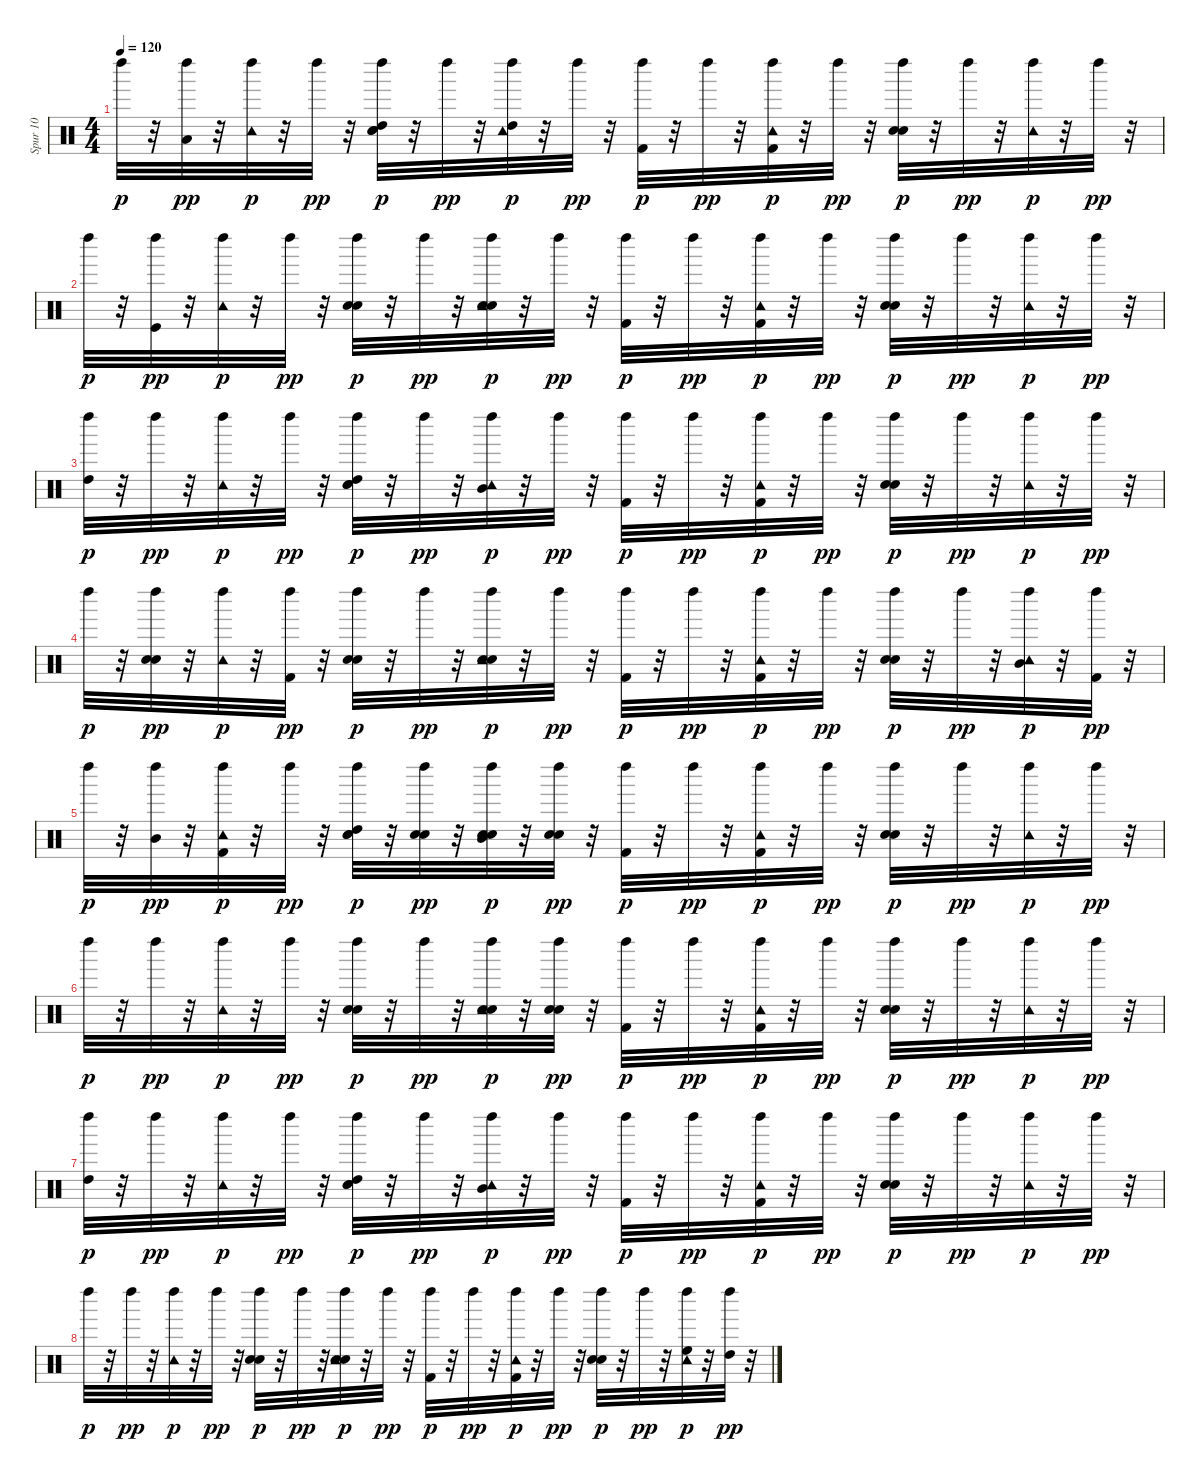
\track ("Spur 10" "Spur 10") {instrument percussion}
\staff {score}
\articulation defaults
\ts (4 4)
\tempo 120
\clef neutral
\ks c "Left Maraca (hit)".32{dy p}
r.32 ("Low Tom (hit)" "Left Maraca (hit)").32{dy pp} r.32 ("Tambourine (hit)" "Left Maraca (hit)").32{dy p} r.32 "Left Maraca (hit)".32{dy pp} r.32 ("Hand Clap (hit)" "Electric Snare (hit)" "High Tom (hit)" "Left Maraca (hit)").32{dy p} r.32 "Left Maraca (hit)".32{dy pp} r.32 ("High Tom (hit)" "Tambourine (hit)" "Left Maraca (hit)").32{dy p} r.32 "Left Maraca (hit)".32{dy pp} r.32 ("Kick (hit) 2" "Left Maraca (hit)").32{dy p} r.32 "Left Maraca (hit)".32{dy pp} r.32 ("Kick (hit) 2" "Tambourine (hit)" "Left Maraca (hit)").32{dy p} r.32 "Left Maraca (hit)".32{dy pp} r.32 ("Hand Clap (hit)" "Electric Snare (hit)" "Left Maraca (hit)").32{dy p} r.32 "Left Maraca (hit)".32{dy pp} r.32 ("Tambourine (hit)" "Left Maraca (hit)").32{dy p} r.32 "Left Maraca (hit)".32{dy pp} r.32 |
"Left Maraca (hit)".32{dy p} r.32 ("Kick (hit)" "Left Maraca (hit)").32{dy pp} r.32 ("Tambourine (hit)" "Left Maraca (hit)").32{dy p} r.32 "Left Maraca (hit)".32{dy pp} r.32 ("Hand Clap (hit)" "Electric Snare (hit)" "Left Maraca (hit)").32{dy p} r.32 "Left Maraca (hit)".32{dy pp} r.32 ("Hand Clap (hit)" "Electric Snare (hit)" "Tambourine (hit)" "Left Maraca (hit)").32{dy p} r.32 "Left Maraca (hit)".32{dy pp} r.32 ("Kick (hit) 2" "Left Maraca (hit)").32{dy p} r.32 "Left Maraca (hit)".32{dy pp} r.32 ("Kick (hit) 2" "Tambourine (hit)" "Left Maraca (hit)").32{dy p} r.32 "Left Maraca (hit)".32{dy pp} r.32 ("Hand Clap (hit)" "Electric Snare (hit)" "Left Maraca (hit)").32{dy p} r.32 "Left Maraca (hit)".32{dy pp} r.32 ("Tambourine (hit)" "Left Maraca (hit)").32{dy p} r.32 "Left Maraca (hit)".32{dy pp} r.32 |
("High Tom (hit)" "Left Maraca (hit)").32{dy p} r.32 "Left Maraca (hit)".32{dy pp} r.32 ("Tambourine (hit)" "Left Maraca (hit)").32{dy p} r.32 "Left Maraca (hit)".32{dy pp} r.32 ("Hand Clap (hit)" "Electric Snare (hit)" "High Tom (hit)" "Left Maraca (hit)").32{dy p} r.32 "Left Maraca (hit)".32{dy pp} r.32 ("Mid Tom (hit)" "Tambourine (hit)" "Left Maraca (hit)").32{dy p} r.32 "Left Maraca (hit)".32{dy pp} r.32 ("Kick (hit) 2" "Left Maraca (hit)").32{dy p} r.32 "Left Maraca (hit)".32{dy pp} r.32 ("Kick (hit) 2" "Tambourine (hit)" "Left Maraca (hit)").32{dy p} r.32 "Left Maraca (hit)".32{dy pp} r.32 ("Hand Clap (hit)" "Electric Snare (hit)" "Left Maraca (hit)").32{dy p} r.32 "Left Maraca (hit)".32{dy pp} r.32 ("Tambourine (hit)" "Left Maraca (hit)").32{dy p} r.32 "Left Maraca (hit)".32{dy pp} r.32 |
"Left Maraca (hit)".32{dy p} r.32 ("Hand Clap (hit)" "Electric Snare (hit)" "Left Maraca (hit)").32{dy pp} r.32 ("Tambourine (hit)" "Left Maraca (hit)").32{dy p} r.32 ("Kick (hit) 2" "Left Maraca (hit)").32{dy pp} r.32 ("Hand Clap (hit)" "Electric Snare (hit)" "Left Maraca (hit)").32{dy p} r.32 "Left Maraca (hit)".32{dy pp} r.32 ("Hand Clap (hit)" "Electric Snare (hit)" "Tambourine (hit)" "Left Maraca (hit)").32{dy p} r.32 "Left Maraca (hit)".32{dy pp} r.32 ("Kick (hit) 2" "Left Maraca (hit)").32{dy p} r.32 "Left Maraca (hit)".32{dy pp} r.32 ("Kick (hit) 2" "Tambourine (hit)" "Left Maraca (hit)").32{dy p} r.32 "Left Maraca (hit)".32{dy pp} r.32 ("Hand Clap (hit)" "Electric Snare (hit)" "Left Maraca (hit)").32{dy p} r.32 "Left Maraca (hit)".32{dy pp} r.32 ("Mid Tom (hit)" "Tambourine (hit)" "Left Maraca (hit)").32{dy p} r.32 ("Kick (hit) 2" "Left Maraca (hit)").32{dy pp} r.32 |
"Left Maraca (hit)".32{dy p} r.32 ("Mid Tom (hit)" "Left Maraca (hit)").32{dy pp} r.32 ("Kick (hit) 2" "Tambourine (hit)" "Left Maraca (hit)").32{dy p} r.32 "Left Maraca (hit)".32{dy pp} r.32 ("Hand Clap (hit)" "Electric Snare (hit)" "High Tom (hit)" "Left Maraca (hit)").32{dy p} r.32 ("Hand Clap (hit)" "Electric Snare (hit)" "Left Maraca (hit)").32{dy pp} r.32 ("Hand Clap (hit)" "Electric Snare (hit)" "Mid Tom (hit)" "Tambourine (hit)" "Left Maraca (hit)").32{dy p} r.32 ("Hand Clap (hit)" "Electric Snare (hit)" "Left Maraca (hit)").32{dy pp} r.32 ("Kick (hit) 2" "Left Maraca (hit)").32{dy p} r.32 "Left Maraca (hit)".32{dy pp} r.32 ("Kick (hit) 2" "Tambourine (hit)" "Left Maraca (hit)").32{dy p} r.32 "Left Maraca (hit)".32{dy pp} r.32 ("Hand Clap (hit)" "Electric Snare (hit)" "Left Maraca (hit)").32{dy p} r.32 "Left Maraca (hit)".32{dy pp} r.32 ("Tambourine (hit)" "Left Maraca (hit)").32{dy p} r.32 "Left Maraca (hit)".32{dy pp} r.32 |
"Left Maraca (hit)".32{dy p} r.32 "Left Maraca (hit)".32{dy pp} r.32 ("Tambourine (hit)" "Left Maraca (hit)").32{dy p} r.32 "Left Maraca (hit)".32{dy pp} r.32 ("Hand Clap (hit)" "Electric Snare (hit)" "Left Maraca (hit)").32{dy p} r.32 "Left Maraca (hit)".32{dy pp} r.32 ("Hand Clap (hit)" "Electric Snare (hit)" "Tambourine (hit)" "Left Maraca (hit)").32{dy p} r.32 ("Hand Clap (hit)" "Electric Snare (hit)" "Left Maraca (hit)").32{dy pp} r.32 ("Kick (hit) 2" "Left Maraca (hit)").32{dy p} r.32 "Left Maraca (hit)".32{dy pp} r.32 ("Kick (hit) 2" "Tambourine (hit)" "Left Maraca (hit)").32{dy p} r.32 "Left Maraca (hit)".32{dy pp} r.32 ("Hand Clap (hit)" "Electric Snare (hit)" "Left Maraca (hit)").32{dy p} r.32 "Left Maraca (hit)".32{dy pp} r.32 ("Tambourine (hit)" "Left Maraca (hit)").32{dy p} r.32 "Left Maraca (hit)".32{dy pp} r.32 |
("High Tom (hit)" "Left Maraca (hit)").32{dy p} r.32 "Left Maraca (hit)".32{dy pp} r.32 ("Tambourine (hit)" "Left Maraca (hit)").32{dy p} r.32 "Left Maraca (hit)".32{dy pp} r.32 ("Hand Clap (hit)" "Electric Snare (hit)" "High Tom (hit)" "Left Maraca (hit)").32{dy p} r.32 "Left Maraca (hit)".32{dy pp} r.32 ("Mid Tom (hit)" "Tambourine (hit)" "Left Maraca (hit)").32{dy p} r.32 "Left Maraca (hit)".32{dy pp} r.32 ("Kick (hit) 2" "Left Maraca (hit)").32{dy p} r.32 "Left Maraca (hit)".32{dy pp} r.32 ("Kick (hit) 2" "Tambourine (hit)" "Left Maraca (hit)").32{dy p} r.32 "Left Maraca (hit)".32{dy pp} r.32 ("Hand Clap (hit)" "Electric Snare (hit)" "Left Maraca (hit)").32{dy p} r.32 "Left Maraca (hit)".32{dy pp} r.32 ("Tambourine (hit)" "Left Maraca (hit)").32{dy p} r.32 "Left Maraca (hit)".32{dy pp} r.32 |
"Left Maraca (hit)".32{dy p} r.32 "Left Maraca (hit)".32{dy pp} r.32 ("Tambourine (hit)" "Left Maraca (hit)").32{dy p} r.32 "Left Maraca (hit)".32{dy pp} r.32 ("Hand Clap (hit)" "Electric Snare (hit)" "Left Maraca (hit)").32{dy p} r.32 "Left Maraca (hit)".32{dy pp} r.32 ("Hand Clap (hit)" "Electric Snare (hit)" "Tambourine (hit)" "Left Maraca (hit)").32{dy p} r.32 "Left Maraca (hit)".32{dy pp} r.32 ("Kick (hit) 2" "Left Maraca (hit)").32{dy p} r.32 "Left Maraca (hit)".32{dy pp} r.32 ("Kick (hit) 2" "Tambourine (hit)" "Left Maraca (hit)").32{dy p} r.32 "Left Maraca (hit)".32{dy pp} r.32 ("Hand Clap (hit)" "Electric Snare (hit)" "Left Maraca (hit)").32{dy p} r.32 "Left Maraca (hit)".32{dy pp} r.32 ("High Floor Tom (hit)" "Tambourine (hit)" "Left Maraca (hit)").32{dy p} r.32 ("High Tom (hit)" "Left Maraca (hit)").32{dy pp} r.32
